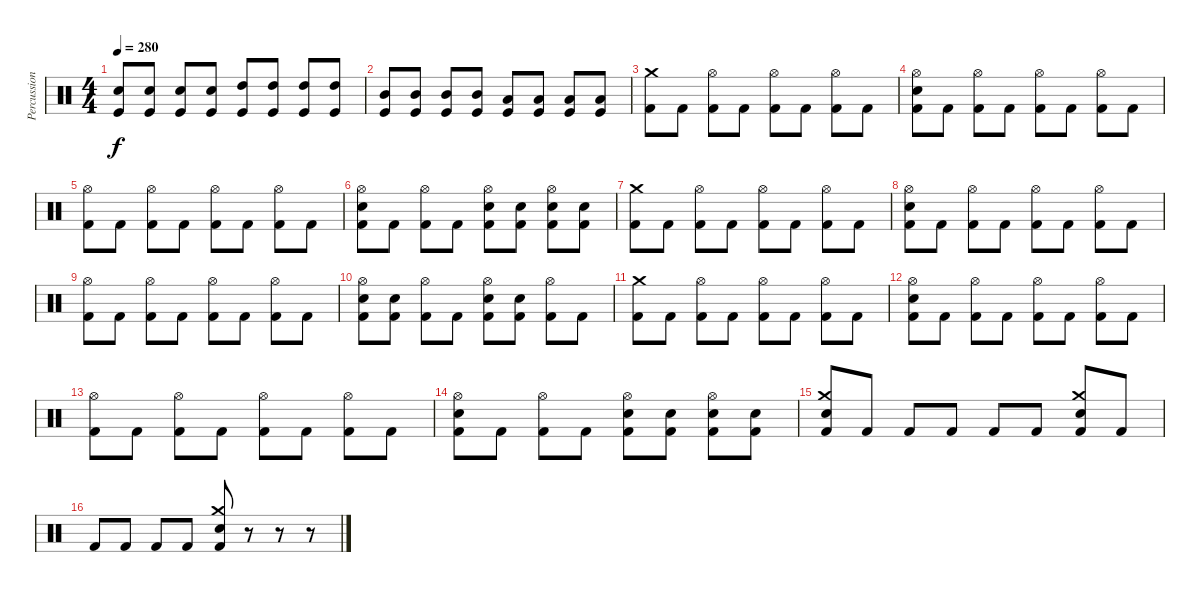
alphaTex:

\track ("Percussion" "Percussion") {instrument percussion}
\staff {score}
\articulation defaults
\ts (4 4)
\tempo 280
\clef neutral
\ks c
("Electric Snare (hit)" "Kick (hit)").8{dy f} ("Electric Snare (hit)" "Kick (hit)").8 ("Electric Snare (hit)" "Kick (hit)").8 ("Electric Snare (hit)" "Kick (hit)").8 ("High Tom (hit)" "Kick (hit)").8 ("High Tom (hit)" "Kick (hit)").8 ("High Tom (hit)" "Kick (hit)").8 ("High Tom (hit)" "Kick (hit)").8 |
("Mid Tom (hit)" "Kick (hit)").8 ("Mid Tom (hit)" "Kick (hit)").8 ("Mid Tom (hit)" "Kick (hit)").8 ("Mid Tom (hit)" "Kick (hit)").8 ("Low Tom (hit)" "Kick (hit)").8 ("Low Tom (hit)" "Kick (hit)").8 ("Low Tom (hit)" "Kick (hit)").8 ("Low Tom (hit)" "Kick (hit)").8 |
("Crash medium (hit)" "Kick (hit) 2").8 "Kick (hit) 2".8 ("Hi-Hat (open)" "Kick (hit) 2").8 "Kick (hit) 2".8 ("Hi-Hat (open)" "Kick (hit) 2").8 "Kick (hit) 2".8 ("Hi-Hat (open)" "Kick (hit) 2").8 "Kick (hit) 2".8 |
("Hi-Hat (open)" "Electric Snare (hit)" "Kick (hit) 2").8 "Kick (hit) 2".8 ("Hi-Hat (open)" "Kick (hit) 2").8 "Kick (hit) 2".8 ("Hi-Hat (open)" "Kick (hit) 2").8 "Kick (hit) 2".8 ("Hi-Hat (open)" "Kick (hit) 2").8 "Kick (hit) 2".8 |
("Hi-Hat (open)" "Kick (hit) 2").8 "Kick (hit) 2".8 ("Hi-Hat (open)" "Kick (hit) 2").8 "Kick (hit) 2".8 ("Hi-Hat (open)" "Kick (hit) 2").8 "Kick (hit) 2".8 ("Hi-Hat (open)" "Kick (hit) 2").8 "Kick (hit) 2".8 |
("Hi-Hat (open)" "Electric Snare (hit)" "Kick (hit) 2").8 "Kick (hit) 2".8 ("Hi-Hat (open)" "Kick (hit) 2").8 "Kick (hit) 2".8 ("Hi-Hat (open)" "Electric Snare (hit)" "Kick (hit) 2").8 ("Electric Snare (hit)" "Kick (hit) 2").8 ("Hi-Hat (open)" "Electric Snare (hit)" "Kick (hit) 2").8 ("Electric Snare (hit)" "Kick (hit) 2").8 |
("Crash medium (hit)" "Kick (hit) 2").8 "Kick (hit) 2".8 ("Hi-Hat (open)" "Kick (hit) 2").8 "Kick (hit) 2".8 ("Hi-Hat (open)" "Kick (hit) 2").8 "Kick (hit) 2".8 ("Hi-Hat (open)" "Kick (hit) 2").8 "Kick (hit) 2".8 |
("Hi-Hat (open)" "Electric Snare (hit)" "Kick (hit) 2").8 "Kick (hit) 2".8 ("Hi-Hat (open)" "Kick (hit) 2").8 "Kick (hit) 2".8 ("Hi-Hat (open)" "Kick (hit) 2").8 "Kick (hit) 2".8 ("Hi-Hat (open)" "Kick (hit) 2").8 "Kick (hit) 2".8 |
("Hi-Hat (open)" "Kick (hit) 2").8 "Kick (hit) 2".8 ("Hi-Hat (open)" "Kick (hit) 2").8 "Kick (hit) 2".8 ("Hi-Hat (open)" "Kick (hit) 2").8 "Kick (hit) 2".8 ("Hi-Hat (open)" "Kick (hit) 2").8 "Kick (hit) 2".8 |
("Hi-Hat (open)" "Electric Snare (hit)" "Kick (hit) 2").8 ("Electric Snare (hit)" "Kick (hit) 2").8 ("Hi-Hat (open)" "Kick (hit) 2").8 "Kick (hit) 2".8 ("Hi-Hat (open)" "Electric Snare (hit)" "Kick (hit) 2").8 ("Electric Snare (hit)" "Kick (hit) 2").8 ("Hi-Hat (open)" "Kick (hit) 2").8 "Kick (hit) 2".8 |
("Crash medium (hit)" "Kick (hit) 2").8 "Kick (hit) 2".8 ("Hi-Hat (open)" "Kick (hit) 2").8 "Kick (hit) 2".8 ("Hi-Hat (open)" "Kick (hit) 2").8 "Kick (hit) 2".8 ("Hi-Hat (open)" "Kick (hit) 2").8 "Kick (hit) 2".8 |
("Hi-Hat (open)" "Electric Snare (hit)" "Kick (hit) 2").8 "Kick (hit) 2".8 ("Hi-Hat (open)" "Kick (hit) 2").8 "Kick (hit) 2".8 ("Hi-Hat (open)" "Kick (hit) 2").8 "Kick (hit) 2".8 ("Hi-Hat (open)" "Kick (hit) 2").8 "Kick (hit) 2".8 |
("Hi-Hat (open)" "Kick (hit) 2").8 "Kick (hit) 2".8 ("Hi-Hat (open)" "Kick (hit) 2").8 "Kick (hit) 2".8 ("Hi-Hat (open)" "Kick (hit) 2").8 "Kick (hit) 2".8 ("Hi-Hat (open)" "Kick (hit) 2").8 "Kick (hit) 2".8 |
("Hi-Hat (open)" "Electric Snare (hit)" "Kick (hit) 2").8 "Kick (hit) 2".8 ("Hi-Hat (open)" "Kick (hit) 2").8 "Kick (hit) 2".8 ("Hi-Hat (open)" "Electric Snare (hit)" "Kick (hit) 2").8 ("Electric Snare (hit)" "Kick (hit) 2").8 ("Hi-Hat (open)" "Electric Snare (hit)" "Kick (hit) 2").8 ("Electric Snare (hit)" "Kick (hit) 2").8 |
("Crash medium (hit)" "Electric Snare (hit)" "Kick (hit) 2").8 "Kick (hit) 2".8 "Kick (hit) 2".8 "Kick (hit) 2".8 "Kick (hit) 2".8 "Kick (hit) 2".8 ("Crash medium (hit)" "Electric Snare (hit)" "Kick (hit) 2").8 "Kick (hit) 2".8 |
"Kick (hit) 2".8 "Kick (hit) 2".8 "Kick (hit) 2".8 "Kick (hit) 2".8 ("Crash medium (hit)" "Electric Snare (hit)" "Kick (hit) 2").8 r.8 r.8 r.8
